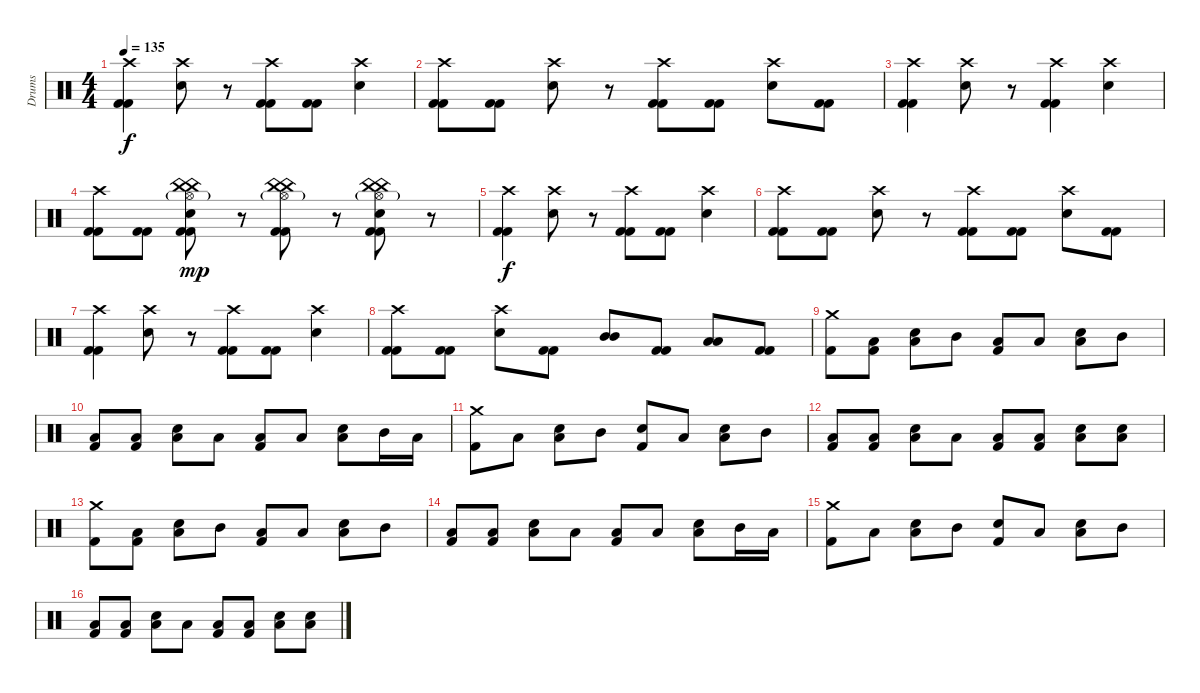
\track ("Drums" "Drums") {instrument percussion}
\staff {score}
\articulation defaults
\ts (4 4)
\tempo 135
\clef neutral
\ks c
("Crash high (hit)" "Kick (hit) 2" "Kick (hit) 2").4{dy f} ("Crash high (hit)" "Electric Snare (hit)").8 r.8 ("Crash high (hit)" "Kick (hit) 2" "Kick (hit) 2").8 ("Kick (hit) 2" "Kick (hit) 2").8 ("Crash high (hit)" "Electric Snare (hit)").4 |
("Crash high (hit)" "Kick (hit) 2" "Kick (hit) 2").8 ("Kick (hit) 2" "Kick (hit) 2").8 ("Crash high (hit)" "Electric Snare (hit)").8 r.8 ("Crash high (hit)" "Kick (hit) 2" "Kick (hit) 2").8 ("Kick (hit) 2" "Kick (hit) 2").8 ("Crash high (hit)" "Electric Snare (hit)").8 ("Kick (hit) 2" "Kick (hit) 2").8 |
("Crash high (hit)" "Kick (hit) 2" "Kick (hit) 2").4 ("Crash high (hit)" "Electric Snare (hit)").8 r.8 ("Crash high (hit)" "Kick (hit) 2" "Kick (hit) 2").4 ("Crash high (hit)" "Electric Snare (hit)").4 |
("Crash high (hit)" "Kick (hit) 2" "Kick (hit) 2").8 ("Kick (hit) 2" "Kick (hit) 2").8 ("China (hit)" "China (hit)" "Hi-Hat (open)"{g} "Electric Snare (hit)" "Kick (hit) 2" "Kick (hit) 2").8{dy mp} r.8 ("China (hit)" "China (hit)" "Hi-Hat (open)"{g} "Kick (hit) 2" "Kick (hit) 2").8 r.8 ("China (hit)" "China (hit)" "Hi-Hat (open)"{g} "Electric Snare (hit)" "Kick (hit) 2" "Kick (hit) 2").8 r.8 |
("Crash high (hit)" "Kick (hit) 2" "Kick (hit) 2").4{dy f} ("Crash high (hit)" "Electric Snare (hit)").8 r.8 ("Crash high (hit)" "Kick (hit) 2" "Kick (hit) 2").8 ("Kick (hit) 2" "Kick (hit) 2").8 ("Crash high (hit)" "Electric Snare (hit)").4 |
("Crash high (hit)" "Kick (hit) 2" "Kick (hit) 2").8 ("Kick (hit) 2" "Kick (hit) 2").8 ("Crash high (hit)" "Electric Snare (hit)").8 r.8 ("Crash high (hit)" "Kick (hit) 2" "Kick (hit) 2").8 ("Kick (hit) 2" "Kick (hit) 2").8 ("Crash high (hit)" "Electric Snare (hit)").8 ("Kick (hit) 2" "Kick (hit) 2").8 |
("Crash high (hit)" "Kick (hit) 2" "Kick (hit) 2").4 ("Crash high (hit)" "Electric Snare (hit)").8 r.8 ("Crash high (hit)" "Kick (hit) 2" "Kick (hit) 2").8 ("Kick (hit) 2" "Kick (hit) 2").8 ("Crash high (hit)" "Electric Snare (hit)").4 |
("Crash high (hit)" "Kick (hit) 2" "Kick (hit) 2").8 ("Kick (hit) 2" "Kick (hit) 2").8 ("Crash high (hit)" "Electric Snare (hit)").8 ("Kick (hit) 2" "Kick (hit) 2").8 ("Mid Tom (hit)" "Mid Tom (hit)").8 ("Kick (hit) 2" "Kick (hit) 2").8 ("Low Tom (hit)" "Low Tom (hit)").8 ("Kick (hit) 2" "Kick (hit) 2").8 |
("Crash medium (hit)" "Kick (hit) 2").8 ("Low Floor Tom (hit)" "Kick (hit) 2").8 ("Low Floor Tom (hit)" "Electric Snare (hit)").8 "Mid Tom (hit)".8 ("Low Floor Tom (hit)" "Kick (hit) 2").8 "Low Floor Tom (hit)".8 ("Low Floor Tom (hit)" "Electric Snare (hit)").8 "Mid Tom (hit)".8 |
("Low Floor Tom (hit)" "Kick (hit) 2").8 ("Low Floor Tom (hit)" "Kick (hit) 2").8 ("Low Floor Tom (hit)" "Electric Snare (hit)").8 "Low Tom (hit)".8 ("Low Floor Tom (hit)" "Kick (hit) 2").8 "Low Floor Tom (hit)".8 ("Low Floor Tom (hit)" "Electric Snare (hit)").8 "Mid Tom (hit)".16 "Low Tom (hit)".16 |
("Crash medium (hit)" "Kick (hit) 2").8{balance 0} "Low Floor Tom (hit)".8 ("Low Floor Tom (hit)" "Electric Snare (hit)").8 "Mid Tom (hit)".8 ("Snare (hit)" "Kick (hit) 2").8 "Low Floor Tom (hit)".8 ("Low Floor Tom (hit)" "Electric Snare (hit)").8 "Mid Tom (hit)".8 |
("Low Floor Tom (hit)" "Kick (hit) 2").8 ("Low Floor Tom (hit)" "Kick (hit) 2").8 ("Low Floor Tom (hit)" "Electric Snare (hit)").8 "Low Tom (hit)".8 ("Low Floor Tom (hit)" "Kick (hit) 2").8 ("Low Floor Tom (hit)" "Kick (hit) 2").8 ("Low Floor Tom (hit)" "Electric Snare (hit)").8 ("Low Floor Tom (hit)" "Electric Snare (hit)").8 |
("Crash medium (hit)" "Kick (hit) 2").8 ("Low Floor Tom (hit)" "Kick (hit) 2").8 ("Low Floor Tom (hit)" "Electric Snare (hit)").8 "Mid Tom (hit)".8 ("Low Floor Tom (hit)" "Kick (hit) 2").8 "Low Floor Tom (hit)".8 ("Low Floor Tom (hit)" "Electric Snare (hit)").8 "Mid Tom (hit)".8 |
("Low Floor Tom (hit)" "Kick (hit) 2").8 ("Low Floor Tom (hit)" "Kick (hit) 2").8 ("Low Floor Tom (hit)" "Electric Snare (hit)").8 "Low Tom (hit)".8 ("Low Floor Tom (hit)" "Kick (hit) 2").8 "Low Floor Tom (hit)".8 ("Low Floor Tom (hit)" "Electric Snare (hit)").8 "Mid Tom (hit)".16 "Low Tom (hit)".16 |
("Crash medium (hit)" "Kick (hit) 2").8{balance 0} "Low Floor Tom (hit)".8 ("Low Floor Tom (hit)" "Electric Snare (hit)").8 "Mid Tom (hit)".8 ("Snare (hit)" "Kick (hit) 2").8 "Low Floor Tom (hit)".8 ("Low Floor Tom (hit)" "Electric Snare (hit)").8 "Mid Tom (hit)".8 |
("Low Floor Tom (hit)" "Kick (hit) 2").8 ("Low Floor Tom (hit)" "Kick (hit) 2").8 ("Low Floor Tom (hit)" "Electric Snare (hit)").8 "Low Tom (hit)".8 ("Low Floor Tom (hit)" "Kick (hit) 2").8 ("Low Floor Tom (hit)" "Kick (hit) 2").8 ("Low Floor Tom (hit)" "Electric Snare (hit)").8 ("Low Floor Tom (hit)" "Electric Snare (hit)").8
